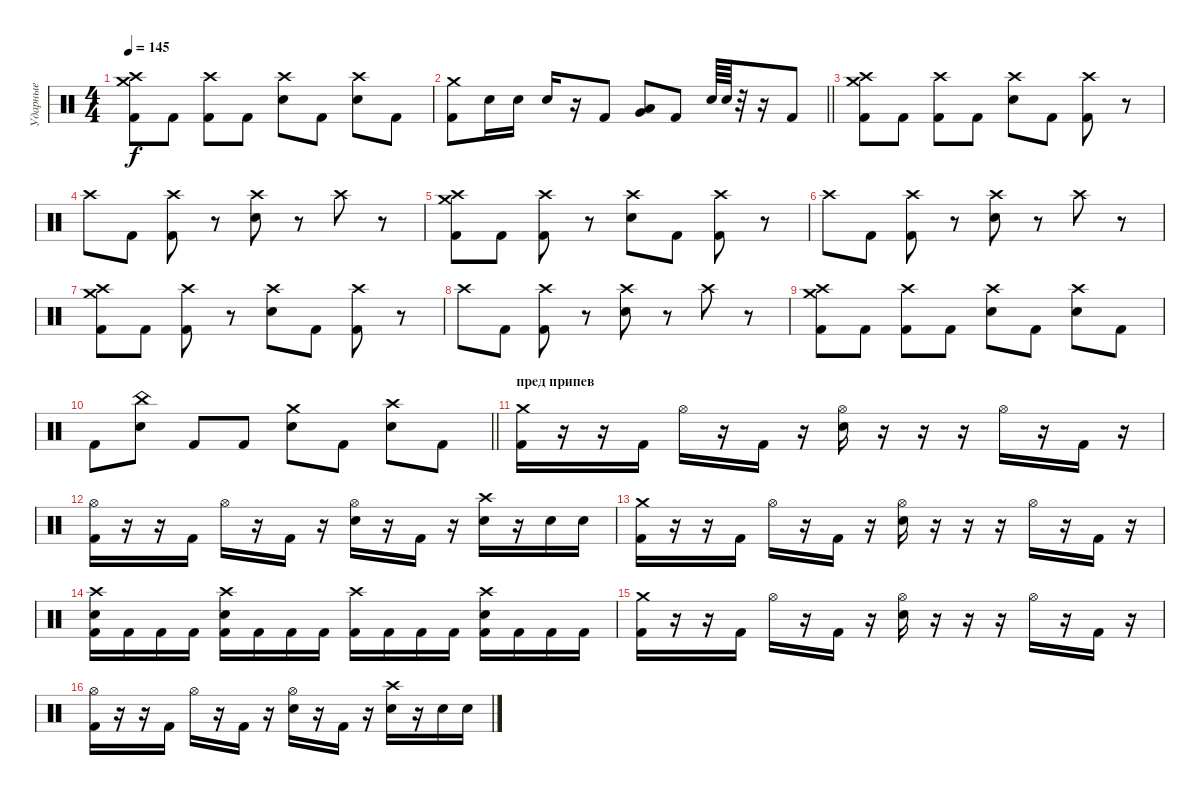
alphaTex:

\track ("Ударные" "Ударные") {instrument percussion}
\staff {score}
\articulation defaults
\ts (4 4)
\tempo 145
\clef neutral
\ks c
("Crash medium (hit)" "Crash high (hit)" "Kick (hit) 2").8{dy f} "Kick (hit) 2".8 ("Crash high (hit)" "Kick (hit) 2").8 "Kick (hit) 2".8 ("Crash high (hit)" "Electric Snare (hit)").8 "Kick (hit) 2".8 ("Crash high (hit)" "Electric Snare (hit)").8 "Kick (hit) 2".8 |
\barLineRight lightlight
("Crash medium (hit)" "Kick (hit) 2").8 "Electric Snare (hit)".16 "Electric Snare (hit)".16 "Electric Snare (hit)".16 r.16 "Kick (hit) 2".8 ("Low Tom (hit)" "Very Low Tom (hit)").8 "Kick (hit) 2".8 "Electric Snare (hit)".64 "Electric Snare (hit)".64 r.32 r.16 "Kick (hit) 2".8 |
("Crash medium (hit)" "Crash high (hit)" "Kick (hit) 2").8 "Kick (hit) 2".8 ("Crash high (hit)" "Kick (hit) 2").8 "Kick (hit) 2".8 ("Crash high (hit)" "Electric Snare (hit)").8 "Kick (hit) 2".8 ("Crash high (hit)" "Kick (hit) 2").8 r.8 |
"Crash high (hit)".8 "Kick (hit) 2".8 ("Crash high (hit)" "Kick (hit) 2").8 r.8 ("Crash high (hit)" "Electric Snare (hit)").8 r.8 "Crash high (hit)".8 r.8 |
("Crash medium (hit)" "Crash high (hit)" "Kick (hit) 2").8 "Kick (hit) 2".8 ("Crash high (hit)" "Kick (hit) 2").8 r.8 ("Crash high (hit)" "Electric Snare (hit)").8 "Kick (hit) 2".8 ("Crash high (hit)" "Kick (hit) 2").8 r.8 |
"Crash high (hit)".8 "Kick (hit) 2".8 ("Crash high (hit)" "Kick (hit) 2").8 r.8 ("Crash high (hit)" "Electric Snare (hit)").8 r.8 "Crash high (hit)".8 r.8 |
("Crash medium (hit)" "Crash high (hit)" "Kick (hit) 2").8 "Kick (hit) 2".8 ("Crash high (hit)" "Kick (hit) 2").8 r.8 ("Crash high (hit)" "Electric Snare (hit)").8 "Kick (hit) 2".8 ("Crash high (hit)" "Kick (hit) 2").8 r.8 |
"Crash high (hit)".8 "Kick (hit) 2".8 ("Crash high (hit)" "Kick (hit) 2").8 r.8 ("Crash high (hit)" "Electric Snare (hit)").8 r.8 "Crash high (hit)".8 r.8 |
("Crash medium (hit)" "Crash high (hit)" "Kick (hit) 2").8 "Kick (hit) 2".8 ("Crash high (hit)" "Kick (hit) 2").8 "Kick (hit) 2".8 ("Crash high (hit)" "Electric Snare (hit)").8 "Kick (hit) 2".8 ("Crash high (hit)" "Electric Snare (hit)").8 "Kick (hit) 2".8 |
\barLineRight lightlight "Kick (hit) 2".8
("China (hit)" "Electric Snare (hit)").8 "Kick (hit) 2".8 "Kick (hit) 2".8 ("Crash medium (hit)" "Electric Snare (hit)").8 "Kick (hit) 2".8 ("Crash high (hit)" "Electric Snare (hit)").8 "Kick (hit) 2".8 |
\section ("" "пред припев")
("Crash medium (hit)" "Kick (hit) 2").16 r.16 r.16 "Kick (hit) 2".16 "Hi-Hat (open)".16 r.16 "Kick (hit) 2".16 r.16 ("Hi-Hat (open)" "Electric Snare (hit)").16 r.16 r.16 r.16 "Hi-Hat (open)".16 r.16 "Kick (hit) 2".16 r.16 |
("Hi-Hat (open)" "Kick (hit) 2").16 r.16 r.16 "Kick (hit) 2".16 "Hi-Hat (open)".16 r.16 "Kick (hit) 2".16 r.16 ("Hi-Hat (open)" "Electric Snare (hit)").16 r.16 "Kick (hit) 2".16 r.16 ("Crash high (hit)" "Electric Snare (hit)").16 r.16 "Electric Snare (hit)".16 "Electric Snare (hit)".16 |
("Crash medium (hit)" "Kick (hit) 2").16 r.16 r.16 "Kick (hit) 2".16 "Hi-Hat (open)".16 r.16 "Kick (hit) 2".16 r.16 ("Hi-Hat (open)" "Electric Snare (hit)").16 r.16 r.16 r.16 "Hi-Hat (open)".16 r.16 "Kick (hit) 2".16 r.16 |
("Crash high (hit)" "Electric Snare (hit)" "Kick (hit) 2").16 "Kick (hit) 2".16 "Kick (hit) 2".16 "Kick (hit) 2".16 ("Crash high (hit)" "Electric Snare (hit)" "Kick (hit) 2").16 "Kick (hit) 2".16 "Kick (hit) 2".16 "Kick (hit) 2".16 ("Crash high (hit)" "Kick (hit) 2").16 "Kick (hit) 2".16 "Kick (hit) 2".16 "Kick (hit) 2".16 ("Crash high (hit)" "Electric Snare (hit)" "Kick (hit) 2").16 "Kick (hit) 2".16 "Kick (hit) 2".16 "Kick (hit) 2".16 |
("Crash medium (hit)" "Kick (hit) 2").16 r.16 r.16 "Kick (hit) 2".16 "Hi-Hat (open)".16 r.16 "Kick (hit) 2".16 r.16 ("Hi-Hat (open)" "Electric Snare (hit)").16 r.16 r.16 r.16 "Hi-Hat (open)".16 r.16 "Kick (hit) 2".16 r.16 |
("Hi-Hat (open)" "Kick (hit) 2").16 r.16 r.16 "Kick (hit) 2".16 "Hi-Hat (open)".16 r.16 "Kick (hit) 2".16 r.16 ("Hi-Hat (open)" "Electric Snare (hit)").16 r.16 "Kick (hit) 2".16 r.16 ("Crash high (hit)" "Electric Snare (hit)").16 r.16 "Electric Snare (hit)".16 "Electric Snare (hit)".16
